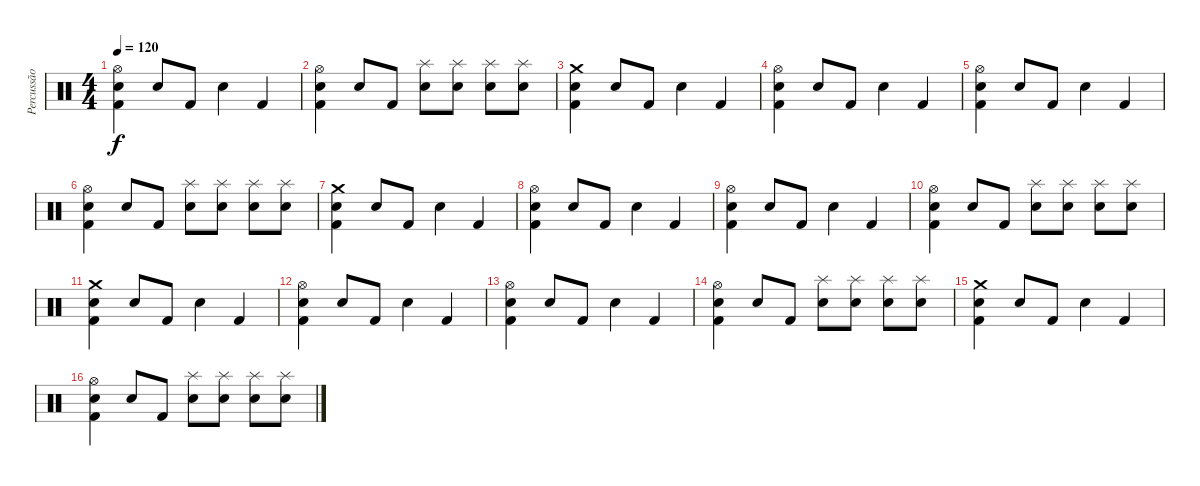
\track ("Percussão" "Percussão") {instrument percussion}
\staff {score}
\articulation defaults
\ts (4 4)
\tempo 120
\clef neutral
\ks c
("Hi-Hat (open)" "Kick (hit) 2" "Snare (hit) 2").4{dy f} "Snare (hit) 2".8 "Kick (hit) 2".8 "Snare (hit) 2".4 "Kick (hit) 2".4 |
("Hi-Hat (open)" "Kick (hit) 2" "Snare (hit) 2").4 "Snare (hit) 2".8 "Kick (hit) 2".8 ("Splash (hit)" "Snare (hit) 2").8 ("Splash (hit)" "Snare (hit) 2").8 ("Splash (hit)" "Snare (hit) 2").8 ("Splash (hit)" "Snare (hit) 2").8 |
("Crash medium (hit)" "Kick (hit) 2" "Snare (hit) 2").4 "Snare (hit) 2".8 "Kick (hit) 2".8 "Snare (hit) 2".4 "Kick (hit) 2".4 |
("Hi-Hat (open)" "Kick (hit) 2" "Snare (hit) 2").4 "Snare (hit) 2".8 "Kick (hit) 2".8 "Snare (hit) 2".4 "Kick (hit) 2".4 |
("Hi-Hat (open)" "Kick (hit) 2" "Snare (hit) 2").4 "Snare (hit) 2".8 "Kick (hit) 2".8 "Snare (hit) 2".4 "Kick (hit) 2".4 |
("Hi-Hat (open)" "Kick (hit) 2" "Snare (hit) 2").4 "Snare (hit) 2".8 "Kick (hit) 2".8 ("Splash (hit)" "Snare (hit) 2").8 ("Splash (hit)" "Snare (hit) 2").8 ("Splash (hit)" "Snare (hit) 2").8 ("Splash (hit)" "Snare (hit) 2").8 |
("Crash medium (hit)" "Kick (hit) 2" "Snare (hit) 2").4 "Snare (hit) 2".8 "Kick (hit) 2".8 "Snare (hit) 2".4 "Kick (hit) 2".4 |
("Hi-Hat (open)" "Kick (hit) 2" "Snare (hit) 2").4 "Snare (hit) 2".8 "Kick (hit) 2".8 "Snare (hit) 2".4 "Kick (hit) 2".4 |
("Hi-Hat (open)" "Kick (hit) 2" "Snare (hit) 2").4 "Snare (hit) 2".8 "Kick (hit) 2".8 "Snare (hit) 2".4 "Kick (hit) 2".4 |
("Hi-Hat (open)" "Kick (hit) 2" "Snare (hit) 2").4 "Snare (hit) 2".8 "Kick (hit) 2".8 ("Splash (hit)" "Snare (hit) 2").8 ("Splash (hit)" "Snare (hit) 2").8 ("Splash (hit)" "Snare (hit) 2").8 ("Splash (hit)" "Snare (hit) 2").8 |
("Crash medium (hit)" "Kick (hit) 2" "Snare (hit) 2").4 "Snare (hit) 2".8 "Kick (hit) 2".8 "Snare (hit) 2".4 "Kick (hit) 2".4 |
("Hi-Hat (open)" "Kick (hit) 2" "Snare (hit) 2").4 "Snare (hit) 2".8 "Kick (hit) 2".8 "Snare (hit) 2".4 "Kick (hit) 2".4 |
("Hi-Hat (open)" "Kick (hit) 2" "Snare (hit) 2").4 "Snare (hit) 2".8 "Kick (hit) 2".8 "Snare (hit) 2".4 "Kick (hit) 2".4 |
("Hi-Hat (open)" "Kick (hit) 2" "Snare (hit) 2").4 "Snare (hit) 2".8 "Kick (hit) 2".8 ("Splash (hit)" "Snare (hit) 2").8 ("Splash (hit)" "Snare (hit) 2").8 ("Splash (hit)" "Snare (hit) 2").8 ("Splash (hit)" "Snare (hit) 2").8 |
("Crash medium (hit)" "Kick (hit) 2" "Snare (hit) 2").4 "Snare (hit) 2".8 "Kick (hit) 2".8 "Snare (hit) 2".4 "Kick (hit) 2".4 |
("Hi-Hat (open)" "Kick (hit) 2" "Snare (hit) 2").4 "Snare (hit) 2".8 "Kick (hit) 2".8 ("Splash (hit)" "Snare (hit) 2").8 ("Splash (hit)" "Snare (hit) 2").8 ("Splash (hit)" "Snare (hit) 2").8 ("Splash (hit)" "Snare (hit) 2").8
